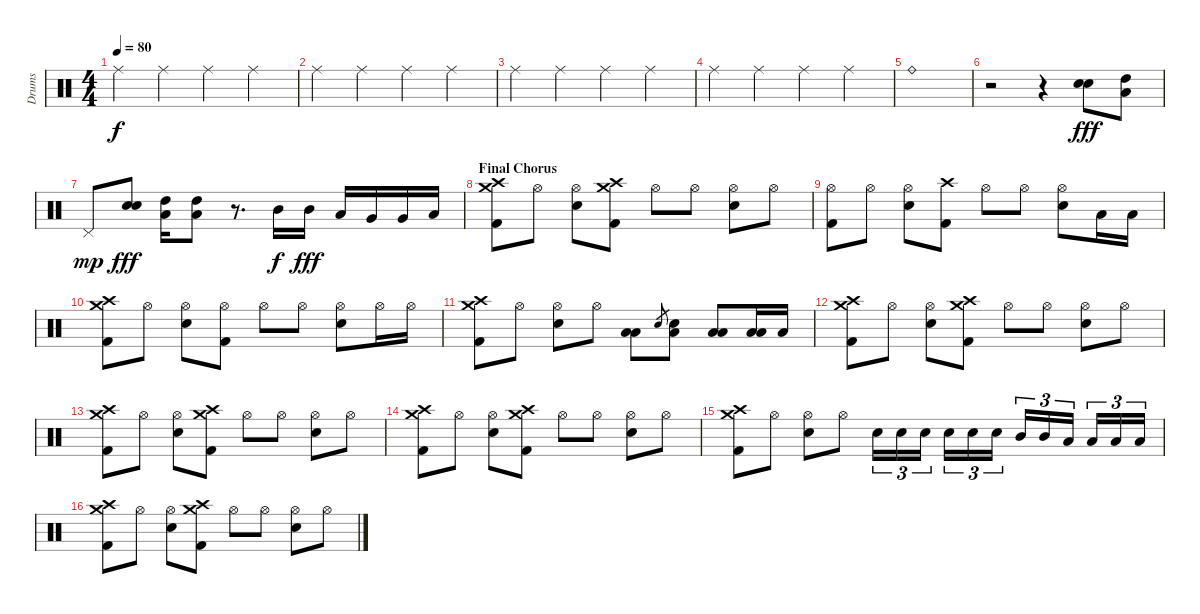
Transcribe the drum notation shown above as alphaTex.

\track ("Drums" "Drums") {instrument percussion}
\staff {score}
\articulation defaults
\ts (4 4)
\tempo 80
\clef neutral
\ks c "Ride (middle)".4{dy f} "Ride (middle)".4 "Ride (middle)".4 "Ride (middle)".4
|
"Ride (middle)".4 "Ride (middle)".4 "Ride (middle)".4 "Ride (middle)".4 |
"Ride (middle)".4 "Ride (middle)".4 "Ride (middle)".4 "Ride (middle)".4 |
"Ride (middle)".4 "Ride (middle)".4 "Ride (middle)".4 "Ride (middle)".4 |
"Ride (bell)".1 |
r.2 r.4 ("Snare (hit) 2" "Electric Snare (hit)").8{dy fff} ("High Tom (hit)" "Low Floor Tom (hit)").8 |
"Pedal Hi-Hat (hit)".8{dy mp} ("Snare (hit) 2" "Electric Snare (hit)").8{dy fff} ("High Tom (hit)" "Low Floor Tom (hit)").16 ("High Tom (hit)" "Low Floor Tom (hit)").8 r.8{d} "Mid Tom (hit)".16{dy f} "Mid Tom (hit)".16{dy fff} "Low Tom (hit)".16 "Very Low Tom (hit)".16 "Very Low Tom (hit)".16 "Low Floor Tom (hit)".16 |
\section ("" "Final Chorus")
("Crash high (hit)" "Crash medium (hit)" "Kick (hit) 2").8 "Hi-Hat (open)".8 ("Hi-Hat (open)" "Electric Snare (hit)").8 ("Crash high (hit)" "Crash medium (hit)" "Kick (hit) 2").8 "Hi-Hat (open)".8 "Hi-Hat (open)".8 ("Hi-Hat (open)" "Electric Snare (hit)").8 "Hi-Hat (open)".8 |
("Hi-Hat (open)" "Kick (hit) 2").8 "Hi-Hat (open)".8 ("Hi-Hat (open)" "Electric Snare (hit)").8 ("Crash high (hit)" "Kick (hit) 2").8 "Hi-Hat (open)".8 "Hi-Hat (open)".8 ("Hi-Hat (open)" "Electric Snare (hit)").8 "Low Tom (hit)".16 "Low Floor Tom (hit)".16 |
("Crash high (hit)" "Crash medium (hit)" "Kick (hit) 2").8 "Hi-Hat (open)".8 ("Hi-Hat (open)" "Electric Snare (hit)").8 ("Hi-Hat (open)" "Kick (hit) 2").8 "Hi-Hat (open)".8 "Hi-Hat (open)".8 ("Hi-Hat (open)" "Electric Snare (hit)").8 "Hi-Hat (open)".16 "Hi-Hat (open)".16 |
("Crash high (hit)" "Crash medium (hit)" "Kick (hit) 2").8 "Hi-Hat (open)".8 ("Hi-Hat (open)" "Electric Snare (hit)").8 "Hi-Hat (open)".8 ("Low Tom (hit)" "Low Floor Tom (hit)").8 "Electric Snare (hit)".8{gr} ("Electric Snare (hit)" "Low Tom (hit)").8 ("Low Tom (hit)" "Low Floor Tom (hit)").8 ("Low Tom (hit)" "Low Floor Tom (hit)").16 "Low Floor Tom (hit)".16 |
("Crash high (hit)" "Crash medium (hit)" "Kick (hit) 2").8 "Hi-Hat (open)".8 ("Hi-Hat (open)" "Electric Snare (hit)").8 ("Crash high (hit)" "Crash medium (hit)" "Kick (hit) 2").8 "Hi-Hat (open)".8 "Hi-Hat (open)".8 ("Hi-Hat (open)" "Electric Snare (hit)").8 "Hi-Hat (open)".8 |
("Crash medium (hit)" "Crash high (hit)" "Kick (hit) 2").8 "Hi-Hat (open)".8 ("Hi-Hat (open)" "Electric Snare (hit)").8 ("Crash high (hit)" "Crash medium (hit)" "Kick (hit) 2").8 "Hi-Hat (open)".8 "Hi-Hat (open)".8 ("Hi-Hat (open)" "Electric Snare (hit)").8 "Hi-Hat (open)".8 |
("Crash medium (hit)" "Crash high (hit)" "Kick (hit) 2").8 "Hi-Hat (open)".8 ("Hi-Hat (open)" "Electric Snare (hit)").8 ("Crash high (hit)" "Crash medium (hit)" "Kick (hit) 2").8 "Hi-Hat (open)".8 "Hi-Hat (open)".8 ("Hi-Hat (open)" "Electric Snare (hit)").8 "Hi-Hat (open)".8 |
("Crash high (hit)" "Crash medium (hit)" "Kick (hit) 2").8 "Hi-Hat (open)".8 ("Hi-Hat (open)" "Electric Snare (hit)").8 "Hi-Hat (open)".8 "Electric Snare (hit)".16{tu (3 2)} "Electric Snare (hit)".16{tu (3 2)} "Electric Snare (hit)".16{tu (3 2)} "Electric Snare (hit)".16{tu (3 2)} "Electric Snare (hit)".16{tu (3 2)} "Electric Snare (hit)".16{tu (3 2)} "Mid Tom (hit)".16{tu (3 2)} "Mid Tom (hit)".16{tu (3 2)} "Low Tom (hit)".16{tu (3 2)} "Low Tom (hit)".16{tu (3 2)} "Low Floor Tom (hit)".16{tu (3 2)} "Low Floor Tom (hit)".16{tu (3 2)} |
("Crash medium (hit)" "Crash high (hit)" "Kick (hit) 2").8 "Hi-Hat (open)".8 ("Hi-Hat (open)" "Electric Snare (hit)").8 ("Crash high (hit)" "Crash medium (hit)" "Kick (hit) 2").8 "Hi-Hat (open)".8 "Hi-Hat (open)".8 ("Hi-Hat (open)" "Electric Snare (hit)").8 "Hi-Hat (open)".8
